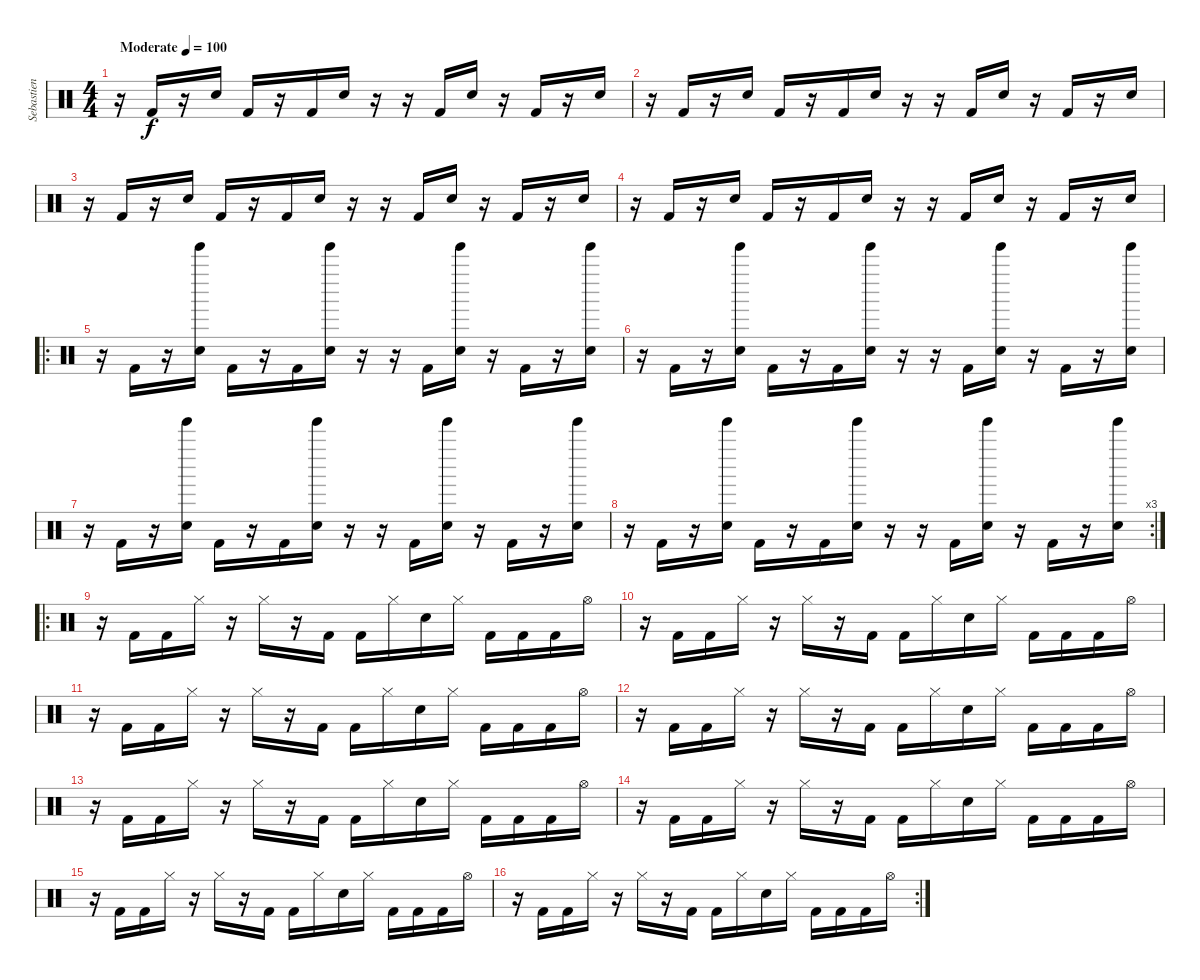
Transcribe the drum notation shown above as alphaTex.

\track ("Sebastien Grainger" "Sebastien ") {instrument percussion}
\staff {score}
\articulation defaults
\ts (4 4)
\tempo (100 "Moderate")
\clef neutral
\ks c
r.16{dy f} "Kick (hit) 2".16 r.16 "Snare (hit) 2".16 "Kick (hit) 2".16 r.16 "Kick (hit) 2".16 "Snare (hit) 2".16 r.16 r.16 "Kick (hit) 2".16 "Snare (hit) 2".16 r.16 "Kick (hit) 2".16 r.16 "Snare (hit) 2".16 |
r.16 "Kick (hit) 2".16 r.16 "Snare (hit) 2".16 "Kick (hit) 2".16 r.16 "Kick (hit) 2".16 "Snare (hit) 2".16 r.16 r.16 "Kick (hit) 2".16 "Snare (hit) 2".16 r.16 "Kick (hit) 2".16 r.16 "Snare (hit) 2".16 |
r.16 "Kick (hit) 2".16 r.16 "Snare (hit) 2".16 "Kick (hit) 2".16 r.16 "Kick (hit) 2".16 "Snare (hit) 2".16 r.16 r.16 "Kick (hit) 2".16 "Snare (hit) 2".16 r.16 "Kick (hit) 2".16 r.16 "Snare (hit) 2".16 |
r.16 "Kick (hit) 2".16 r.16 "Snare (hit) 2".16 "Kick (hit) 2".16 r.16 "Kick (hit) 2".16 "Snare (hit) 2".16 r.16 r.16 "Kick (hit) 2".16 "Snare (hit) 2".16 r.16 "Kick (hit) 2".16 r.16 "Snare (hit) 2".16 |
\ro
r.16 "Kick (hit) 2".16 r.16 ("Tinkle Bell (hit)" "Snare (hit) 2").16 "Kick (hit) 2".16 r.16 "Kick (hit) 2".16 ("Tinkle Bell (hit)" "Snare (hit) 2").16 r.16 r.16 "Kick (hit) 2".16 ("Tinkle Bell (hit)" "Snare (hit) 2").16 r.16 "Kick (hit) 2".16 r.16 ("Tinkle Bell (hit)" "Snare (hit) 2").16 |
r.16 "Kick (hit) 2".16 r.16 ("Tinkle Bell (hit)" "Snare (hit) 2").16 "Kick (hit) 2".16 r.16 "Kick (hit) 2".16 ("Tinkle Bell (hit)" "Snare (hit) 2").16 r.16 r.16 "Kick (hit) 2".16 ("Tinkle Bell (hit)" "Snare (hit) 2").16 r.16 "Kick (hit) 2".16 r.16 ("Tinkle Bell (hit)" "Snare (hit) 2").16 |
r.16 "Kick (hit) 2".16 r.16 ("Tinkle Bell (hit)" "Snare (hit) 2").16 "Kick (hit) 2".16 r.16 "Kick (hit) 2".16 ("Tinkle Bell (hit)" "Snare (hit) 2").16 r.16 r.16 "Kick (hit) 2".16 ("Tinkle Bell (hit)" "Snare (hit) 2").16 r.16 "Kick (hit) 2".16 r.16 ("Tinkle Bell (hit)" "Snare (hit) 2").16 |
\rc 3
r.16 "Kick (hit) 2".16 r.16 ("Tinkle Bell (hit)" "Snare (hit) 2").16 "Kick (hit) 2".16 r.16 "Kick (hit) 2".16 ("Tinkle Bell (hit)" "Snare (hit) 2").16 r.16 r.16 "Kick (hit) 2".16 ("Tinkle Bell (hit)" "Snare (hit) 2").16 r.16 "Kick (hit) 2".16 r.16 ("Tinkle Bell (hit)" "Snare (hit) 2").16 |
\ro
r.16 "Kick (hit) 2".16 "Kick (hit) 2".16 "Hi-Hat (closed)".16 r.16 "Hi-Hat (closed)".16 r.16 "Kick (hit) 2".16 "Kick (hit) 2".16 "Hi-Hat (closed)".16 "Snare (hit) 2".16 "Hi-Hat (closed)".16 "Kick (hit) 2".16 "Kick (hit) 2".16 "Kick (hit) 2".16 "Hi-Hat (open)".16 |
r.16 "Kick (hit) 2".16 "Kick (hit) 2".16 "Hi-Hat (closed)".16 r.16 "Hi-Hat (closed)".16 r.16 "Kick (hit) 2".16 "Kick (hit) 2".16 "Hi-Hat (closed)".16 "Snare (hit) 2".16 "Hi-Hat (closed)".16 "Kick (hit) 2".16 "Kick (hit) 2".16 "Kick (hit) 2".16 "Hi-Hat (open)".16 |
r.16 "Kick (hit) 2".16 "Kick (hit) 2".16 "Hi-Hat (closed)".16 r.16 "Hi-Hat (closed)".16 r.16 "Kick (hit) 2".16 "Kick (hit) 2".16 "Hi-Hat (closed)".16 "Snare (hit) 2".16 "Hi-Hat (closed)".16 "Kick (hit) 2".16 "Kick (hit) 2".16 "Kick (hit) 2".16 "Hi-Hat (open)".16 |
r.16 "Kick (hit) 2".16 "Kick (hit) 2".16 "Hi-Hat (closed)".16 r.16 "Hi-Hat (closed)".16 r.16 "Kick (hit) 2".16 "Kick (hit) 2".16 "Hi-Hat (closed)".16 "Snare (hit) 2".16 "Hi-Hat (closed)".16 "Kick (hit) 2".16 "Kick (hit) 2".16 "Kick (hit) 2".16 "Hi-Hat (open)".16 |
r.16 "Kick (hit) 2".16 "Kick (hit) 2".16 "Hi-Hat (closed)".16 r.16 "Hi-Hat (closed)".16 r.16 "Kick (hit) 2".16 "Kick (hit) 2".16 "Hi-Hat (closed)".16 "Snare (hit) 2".16 "Hi-Hat (closed)".16 "Kick (hit) 2".16 "Kick (hit) 2".16 "Kick (hit) 2".16 "Hi-Hat (open)".16 |
r.16 "Kick (hit) 2".16 "Kick (hit) 2".16 "Hi-Hat (closed)".16 r.16 "Hi-Hat (closed)".16 r.16 "Kick (hit) 2".16 "Kick (hit) 2".16 "Hi-Hat (closed)".16 "Snare (hit) 2".16 "Hi-Hat (closed)".16 "Kick (hit) 2".16 "Kick (hit) 2".16 "Kick (hit) 2".16 "Hi-Hat (open)".16 |
r.16 "Kick (hit) 2".16 "Kick (hit) 2".16 "Hi-Hat (closed)".16 r.16 "Hi-Hat (closed)".16 r.16 "Kick (hit) 2".16 "Kick (hit) 2".16 "Hi-Hat (closed)".16 "Snare (hit) 2".16 "Hi-Hat (closed)".16 "Kick (hit) 2".16 "Kick (hit) 2".16 "Kick (hit) 2".16 "Hi-Hat (open)".16 |
\rc 2
r.16 "Kick (hit) 2".16 "Kick (hit) 2".16 "Hi-Hat (closed)".16 r.16 "Hi-Hat (closed)".16 r.16 "Kick (hit) 2".16 "Kick (hit) 2".16 "Hi-Hat (closed)".16 "Snare (hit) 2".16 "Hi-Hat (closed)".16 "Kick (hit) 2".16 "Kick (hit) 2".16 "Kick (hit) 2".16 "Hi-Hat (open)".16
